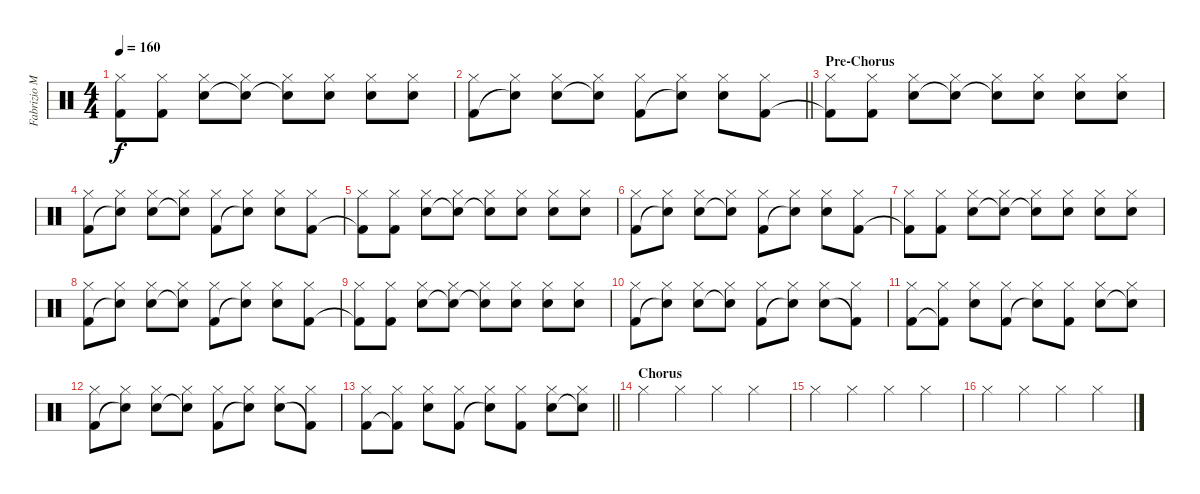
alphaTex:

\track ("Fabrizio Moretti" "Fabrizio M") {instrument percussion}
\staff {score}
\articulation defaults
\ts (4 4)
\tempo 160
\clef neutral
\ks c
("Hi-Hat (closed)" "Kick (hit) 2"{t}).8{dy f} ("Hi-Hat (closed)" "Kick (hit) 2").8 ("Hi-Hat (closed)" "Electric Snare (hit)").8 ("Hi-Hat (closed)" "Snare (hit)"{t}).8 ("Hi-Hat (closed)" "Snare (hit)"{t}).8 ("Hi-Hat (closed)" "Electric Snare (hit)").8 ("Hi-Hat (closed)" "Electric Snare (hit)").8 ("Hi-Hat (closed)" "Electric Snare (hit)").8 |
\barLineRight lightlight
("Hi-Hat (closed)" "Kick (hit) 2").8 ("Hi-Hat (closed)" "Snare (hit)"{t}).8 ("Hi-Hat (closed)" "Electric Snare (hit)").8 ("Hi-Hat (closed)" "Snare (hit)"{t}).8 ("Hi-Hat (closed)" "Kick (hit) 2").8 ("Hi-Hat (closed)" "Snare (hit)"{t}).8 ("Hi-Hat (closed)" "Electric Snare (hit)").8 ("Hi-Hat (closed)" "Kick (hit) 2").8 |
\section ("" "Pre-Chorus")
("Hi-Hat (closed)" "Kick (hit) 2"{t}).8 ("Hi-Hat (closed)" "Kick (hit) 2").8 ("Hi-Hat (closed)" "Electric Snare (hit)").8 ("Hi-Hat (closed)" "Snare (hit)"{t}).8 ("Hi-Hat (closed)" "Snare (hit)"{t}).8 ("Hi-Hat (closed)" "Electric Snare (hit)").8 ("Hi-Hat (closed)" "Electric Snare (hit)").8 ("Hi-Hat (closed)" "Electric Snare (hit)").8 |
("Hi-Hat (closed)" "Kick (hit) 2").8 ("Hi-Hat (closed)" "Snare (hit)"{t}).8 ("Hi-Hat (closed)" "Electric Snare (hit)").8 ("Hi-Hat (closed)" "Snare (hit)"{t}).8 ("Hi-Hat (closed)" "Kick (hit) 2").8 ("Hi-Hat (closed)" "Snare (hit)"{t}).8 ("Hi-Hat (closed)" "Electric Snare (hit)").8 ("Hi-Hat (closed)" "Kick (hit) 2").8 |
("Hi-Hat (closed)" "Kick (hit) 2"{t}).8 ("Hi-Hat (closed)" "Kick (hit) 2").8 ("Hi-Hat (closed)" "Electric Snare (hit)").8 ("Hi-Hat (closed)" "Snare (hit)"{t}).8 ("Hi-Hat (closed)" "Snare (hit)"{t}).8 ("Hi-Hat (closed)" "Electric Snare (hit)").8 ("Hi-Hat (closed)" "Electric Snare (hit)").8 ("Hi-Hat (closed)" "Electric Snare (hit)").8 |
("Hi-Hat (closed)" "Kick (hit) 2").8 ("Hi-Hat (closed)" "Snare (hit)"{t}).8 ("Hi-Hat (closed)" "Electric Snare (hit)").8 ("Hi-Hat (closed)" "Snare (hit)"{t}).8 ("Hi-Hat (closed)" "Kick (hit) 2").8 ("Hi-Hat (closed)" "Snare (hit)"{t}).8 ("Hi-Hat (closed)" "Electric Snare (hit)").8 ("Hi-Hat (closed)" "Kick (hit) 2").8 |
("Hi-Hat (closed)" "Kick (hit) 2"{t}).8 ("Hi-Hat (closed)" "Kick (hit) 2").8 ("Hi-Hat (closed)" "Electric Snare (hit)").8 ("Hi-Hat (closed)" "Snare (hit)"{t}).8 ("Hi-Hat (closed)" "Snare (hit)"{t}).8 ("Hi-Hat (closed)" "Electric Snare (hit)").8 ("Hi-Hat (closed)" "Electric Snare (hit)").8 ("Hi-Hat (closed)" "Electric Snare (hit)").8 |
("Hi-Hat (closed)" "Kick (hit) 2").8 ("Hi-Hat (closed)" "Snare (hit)"{t}).8 ("Hi-Hat (closed)" "Electric Snare (hit)").8 ("Hi-Hat (closed)" "Snare (hit)"{t}).8 ("Hi-Hat (closed)" "Kick (hit) 2").8 ("Hi-Hat (closed)" "Snare (hit)"{t}).8 ("Hi-Hat (closed)" "Electric Snare (hit)").8 ("Hi-Hat (closed)" "Kick (hit) 2").8 |
("Hi-Hat (closed)" "Kick (hit) 2"{t}).8 ("Hi-Hat (closed)" "Kick (hit) 2").8 ("Hi-Hat (closed)" "Electric Snare (hit)").8 ("Hi-Hat (closed)" "Snare (hit)"{t}).8 ("Hi-Hat (closed)" "Snare (hit)"{t}).8 ("Hi-Hat (closed)" "Electric Snare (hit)").8 ("Hi-Hat (closed)" "Electric Snare (hit)").8 ("Hi-Hat (closed)" "Electric Snare (hit)").8 |
("Hi-Hat (closed)" "Kick (hit) 2").8 ("Hi-Hat (closed)" "Snare (hit)"{t}).8 ("Hi-Hat (closed)" "Electric Snare (hit)").8 ("Hi-Hat (closed)" "Snare (hit)"{t}).8 ("Hi-Hat (closed)" "Kick (hit) 2").8 ("Hi-Hat (closed)" "Snare (hit)"{t}).8 ("Hi-Hat (closed)" "Electric Snare (hit)").8 ("Hi-Hat (closed)" "Kick (hit) 2"{t}).8 |
("Hi-Hat (closed)" "Kick (hit) 2").8 ("Hi-Hat (closed)" "Kick (hit) 2"{t}).8 ("Hi-Hat (closed)" "Electric Snare (hit)").8 ("Hi-Hat (closed)" "Kick (hit) 2").8 ("Hi-Hat (closed)" "Snare (hit)"{t}).8 ("Hi-Hat (closed)" "Kick (hit) 2").8 ("Hi-Hat (closed)" "Electric Snare (hit)").8 ("Hi-Hat (closed)" "Electric Snare (hit)"{t}).8 |
("Hi-Hat (closed)" "Kick (hit) 2").8 ("Hi-Hat (closed)" "Snare (hit)"{t}).8 ("Hi-Hat (closed)" "Electric Snare (hit)").8 ("Hi-Hat (closed)" "Snare (hit)"{t}).8 ("Hi-Hat (closed)" "Kick (hit) 2").8 ("Hi-Hat (closed)" "Snare (hit)"{t}).8 ("Hi-Hat (closed)" "Electric Snare (hit)").8 ("Hi-Hat (closed)" "Kick (hit) 2"{t}).8 |
\barLineRight lightlight
("Hi-Hat (closed)" "Kick (hit) 2").8 ("Hi-Hat (closed)" "Kick (hit) 2"{t}).8 ("Hi-Hat (closed)" "Electric Snare (hit)").8 ("Hi-Hat (closed)" "Kick (hit) 2").8 ("Hi-Hat (closed)" "Snare (hit)"{t}).8 ("Hi-Hat (closed)" "Kick (hit) 2").8 ("Hi-Hat (closed)" "Electric Snare (hit)").8 ("Hi-Hat (closed)" "Electric Snare (hit)"{t}).8 |
\section ("" "Chorus")
"Hi-Hat (closed)".4 "Hi-Hat (closed)".4 "Hi-Hat (closed)".4 "Hi-Hat (closed)".4 |
"Hi-Hat (closed)".4 "Hi-Hat (closed)".4 "Hi-Hat (closed)".4 "Hi-Hat (closed)".4 |
"Hi-Hat (closed)".4 "Hi-Hat (closed)".4 "Hi-Hat (closed)".4 "Hi-Hat (closed)".4
